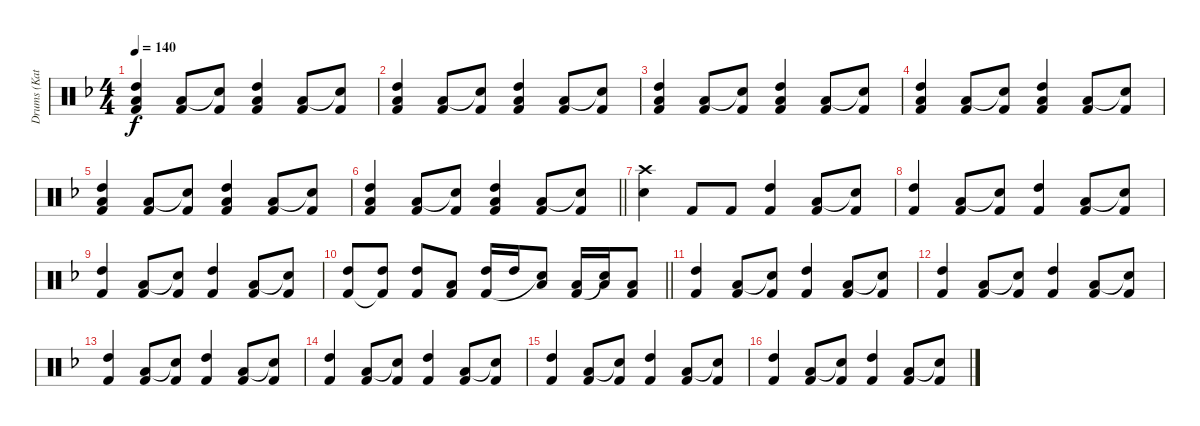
\track ("Drums (Katsuji)" "Drums (Kat") {instrument percussion}
\staff {score}
\articulation defaults
\ts (4 4)
\tempo 140
\clef neutral
\ks f
("High Tom (hit)" "Low Tom (hit)" "Kick (hit) 2").4{dy f} ("Low Tom (hit)" "Kick (hit) 2").8 ("Snare (hit)"{t} "Kick (hit) 2").8 ("High Tom (hit)" "Low Tom (hit)" "Kick (hit) 2").4 ("Low Tom (hit)" "Kick (hit) 2").8 ("Snare (hit)"{t} "Kick (hit) 2").8 |
("High Tom (hit)" "Low Tom (hit)" "Kick (hit) 2").4 ("Low Tom (hit)" "Kick (hit) 2").8 ("Snare (hit)"{t} "Kick (hit) 2").8 ("High Tom (hit)" "Low Tom (hit)" "Kick (hit) 2").4 ("Low Tom (hit)" "Kick (hit) 2").8 ("Snare (hit)"{t} "Kick (hit) 2").8 |
("High Tom (hit)" "Low Tom (hit)" "Kick (hit) 2").4 ("Low Tom (hit)" "Kick (hit) 2").8 ("Snare (hit)"{t} "Kick (hit) 2").8 ("High Tom (hit)" "Low Tom (hit)" "Kick (hit) 2").4 ("Low Tom (hit)" "Kick (hit) 2").8 ("Snare (hit)"{t} "Kick (hit) 2").8 |
("High Tom (hit)" "Low Tom (hit)" "Kick (hit) 2").4 ("Low Tom (hit)" "Kick (hit) 2").8 ("Snare (hit)"{t} "Kick (hit) 2").8 ("High Tom (hit)" "Low Tom (hit)" "Kick (hit) 2").4 ("Low Tom (hit)" "Kick (hit) 2").8 ("Snare (hit)"{t} "Kick (hit) 2").8 |
("High Tom (hit)" "Low Tom (hit)" "Kick (hit) 2").4 ("Low Tom (hit)" "Kick (hit) 2").8 ("Snare (hit)"{t} "Kick (hit) 2").8 ("High Tom (hit)" "Low Tom (hit)" "Kick (hit) 2").4 ("Low Tom (hit)" "Kick (hit) 2").8 ("Snare (hit)"{t} "Kick (hit) 2").8 |
\barLineRight lightlight
("High Tom (hit)" "Low Tom (hit)" "Kick (hit) 2").4 ("Low Tom (hit)" "Kick (hit) 2").8 ("Snare (hit)"{t} "Kick (hit) 2").8 ("High Tom (hit)" "Low Tom (hit)" "Kick (hit) 2").4 ("Low Tom (hit)" "Kick (hit) 2").8 ("Snare (hit)"{t} "Kick (hit) 2").8 |
("Crash high (hit)" "Snare (hit) 2").4 "Kick (hit) 2".8 "Kick (hit) 2".8 ("High Tom (hit)" "Kick (hit) 2").4 ("Low Tom (hit)" "Kick (hit) 2").8 ("Snare (hit)"{t} "Kick (hit) 2").8 |
("High Tom (hit)" "Kick (hit) 2").4 ("Low Tom (hit)" "Kick (hit) 2").8 ("Snare (hit)"{t} "Kick (hit) 2").8 ("High Tom (hit)" "Kick (hit) 2").4 ("Low Tom (hit)" "Kick (hit) 2").8 ("Snare (hit)"{t} "Kick (hit) 2").8 |
("High Tom (hit)" "Kick (hit) 2").4 ("Low Tom (hit)" "Kick (hit) 2").8 ("Snare (hit)"{t} "Kick (hit) 2").8 ("High Tom (hit)" "Kick (hit) 2").4 ("Low Tom (hit)" "Kick (hit) 2").8 ("Snare (hit)"{t} "Kick (hit) 2").8 |
\barLineRight lightlight
("High Tom (hit)" "Kick (hit) 2").8 ("High Tom (hit)" "Kick (hit) 2"{t}).8 ("High Tom (hit)" "Kick (hit) 2").8 ("Low Tom (hit)" "Kick (hit) 2").8 ("High Tom (hit)" "Kick (hit) 2").16 "High Tom (hit)".16 ("Low Tom (hit)" "Snare (hit)"{t}).8 ("Low Tom (hit)" "Kick (hit) 2").16 ("Low Tom (hit)" "Snare (hit)"{t}).16 ("Low Tom (hit)" "Kick (hit) 2").8 |
("High Tom (hit)" "Kick (hit) 2").4 ("Low Tom (hit)" "Kick (hit) 2").8 ("Snare (hit)"{t} "Kick (hit) 2").8 ("High Tom (hit)" "Kick (hit) 2").4 ("Low Tom (hit)" "Kick (hit) 2").8 ("Snare (hit)"{t} "Kick (hit) 2").8 |
("High Tom (hit)" "Kick (hit) 2").4 ("Low Tom (hit)" "Kick (hit) 2").8 ("Snare (hit)"{t} "Kick (hit) 2").8 ("High Tom (hit)" "Kick (hit) 2").4 ("Low Tom (hit)" "Kick (hit) 2").8 ("Snare (hit)"{t} "Kick (hit) 2").8 |
("High Tom (hit)" "Kick (hit) 2").4 ("Low Tom (hit)" "Kick (hit) 2").8 ("Snare (hit)"{t} "Kick (hit) 2").8 ("High Tom (hit)" "Kick (hit) 2").4 ("Low Tom (hit)" "Kick (hit) 2").8 ("Snare (hit)"{t} "Kick (hit) 2").8 |
("High Tom (hit)" "Kick (hit) 2").4 ("Low Tom (hit)" "Kick (hit) 2").8 ("Snare (hit)"{t} "Kick (hit) 2").8 ("High Tom (hit)" "Kick (hit) 2").4 ("Low Tom (hit)" "Kick (hit) 2").8 ("Snare (hit)"{t} "Kick (hit) 2").8 |
("High Tom (hit)" "Kick (hit) 2").4 ("Low Tom (hit)" "Kick (hit) 2").8 ("Snare (hit)"{t} "Kick (hit) 2").8 ("High Tom (hit)" "Kick (hit) 2").4 ("Low Tom (hit)" "Kick (hit) 2").8 ("Snare (hit)"{t} "Kick (hit) 2").8 |
("High Tom (hit)" "Kick (hit) 2").4 ("Low Tom (hit)" "Kick (hit) 2").8 ("Snare (hit)"{t} "Kick (hit) 2").8 ("High Tom (hit)" "Kick (hit) 2").4 ("Low Tom (hit)" "Kick (hit) 2").8 ("Snare (hit)"{t} "Kick (hit) 2").8
